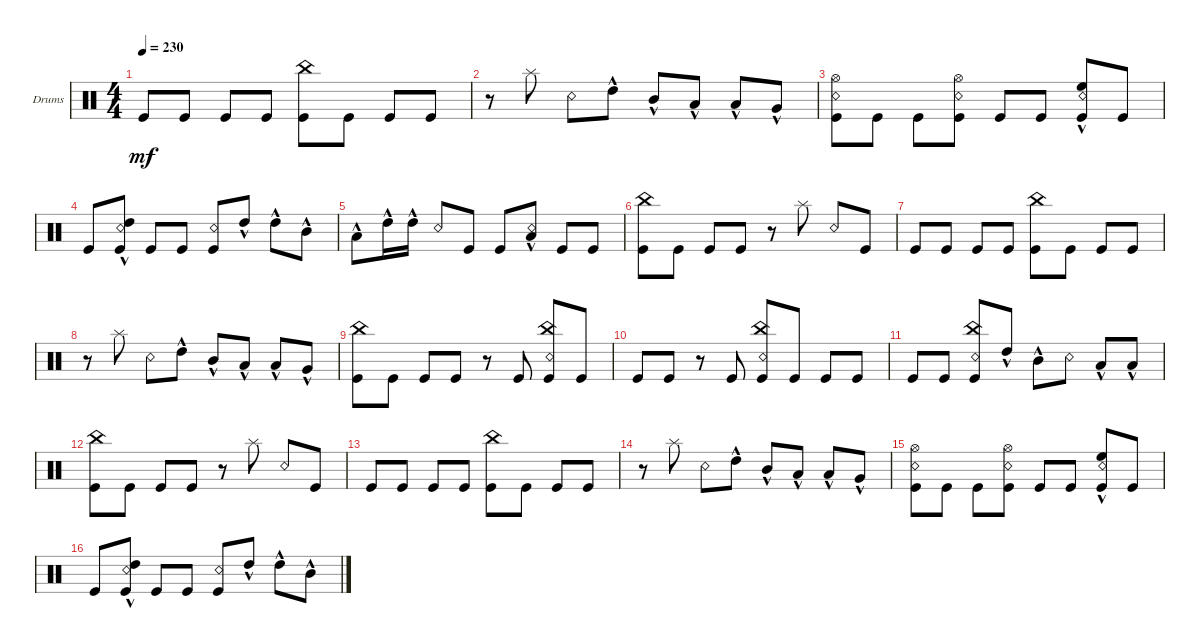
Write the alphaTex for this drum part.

\bracketExtendMode groupsimilarinstruments
\firstSystemTrackNameOrientation horizontal
\otherSystemsTrackNameOrientation horizontal
\track ("Drumkit" "Drums") {solo instrument percussion}
\staff {score}
\articulation defaults
\ts (4 4)
\tempo 230
\clef neutral
\ks c "Kick (hit)".8{dy mf} "Kick (hit)".8 "Kick (hit)".8 "Kick (hit)".8
("China (hit)" "Kick (hit)").8 "Kick (hit)".8 "Kick (hit)".8 "Kick (hit)".8 |
r.8 "Splash (hit)".8 "Snare (rim shot)".8 "High Tom (hit)"{hac}.8 "Mid Tom (hit)"{hac}.8 "Low Tom (hit)"{hac}.8 "Low Tom (hit)"{hac}.8 "Very Low Tom (hit)"{hac}.8 |
("Kick (hit)" "Hi-Hat (open)" "Snare (rim shot)").8 "Kick (hit)".8 "Kick (hit)".8 ("Kick (hit)" "Snare (rim shot)" "Hi-Hat (open)").8 "Kick (hit)".8 "Kick (hit)".8 ("Kick (hit)" "Snare (rim shot)" "High Floor Tom (hit)"{hac}).8 "Kick (hit)".8 |
"Kick (hit)".8 ("Kick (hit)" "Snare (rim shot)" "High Tom (hit)"{hac}).8 "Kick (hit)".8 "Kick (hit)".8 ("Kick (hit)" "Snare (rim shot)").8 "High Tom (hit)"{hac}.8 "High Tom (hit)"{hac}.8 "Mid Tom (hit)"{hac}.8 |
"Low Tom (hit)"{hac}.8 "High Tom (hit)"{hac}.16 "High Tom (hit)"{hac}.16 "Snare (rim shot)".8 "Kick (hit)".8 "Kick (hit)".8 ("Low Tom (hit)"{hac} "Snare (rim shot)").8 "Kick (hit)".8 "Kick (hit)".8 |
("Kick (hit)" "China (hit)").8 "Kick (hit)".8 "Kick (hit)".8 "Kick (hit)".8 r.8 "Splash (hit)".8 "Snare (rim shot)".8 "Kick (hit)".8 |
"Kick (hit)".8 "Kick (hit)".8 "Kick (hit)".8 "Kick (hit)".8 ("China (hit)" "Kick (hit)").8 "Kick (hit)".8 "Kick (hit)".8 "Kick (hit)".8 |
r.8 "Splash (hit)".8 "Snare (rim shot)".8 "High Tom (hit)"{hac}.8 "Mid Tom (hit)"{hac}.8 "Low Tom (hit)"{hac}.8 "Low Tom (hit)"{hac}.8 "Very Low Tom (hit)"{hac}.8 |
("Kick (hit)" "China (hit)").8 "Kick (hit)".8 "Kick (hit)".8 "Kick (hit)".8 r.8 "Kick (hit)".8 ("Kick (hit)" "Snare (rim shot)" "China (hit)").8 "Kick (hit)".8 |
"Kick (hit)".8 "Kick (hit)".8 r.8 "Kick (hit)".8 ("Kick (hit)" "China (hit)" "Snare (rim shot)").8 "Kick (hit)".8 "Kick (hit)".8 "Kick (hit)".8 |
"Kick (hit)".8 "Kick (hit)".8 ("Kick (hit)" "Snare (rim shot)" "China (hit)").8 "High Tom (hit)"{hac}.8 "Mid Tom (hit)"{hac}.8 "Snare (rim shot)".8 "Low Tom (hit)"{hac}.8 "Low Tom (hit)"{hac}.8 |
("Kick (hit)" "China (hit)").8 "Kick (hit)".8 "Kick (hit)".8 "Kick (hit)".8 r.8 "Splash (hit)".8 "Snare (rim shot)".8 "Kick (hit)".8 |
"Kick (hit)".8 "Kick (hit)".8 "Kick (hit)".8 "Kick (hit)".8 ("China (hit)" "Kick (hit)").8 "Kick (hit)".8 "Kick (hit)".8 "Kick (hit)".8 |
r.8 "Splash (hit)".8 "Snare (rim shot)".8 "High Tom (hit)"{hac}.8 "Mid Tom (hit)"{hac}.8 "Low Tom (hit)"{hac}.8 "Low Tom (hit)"{hac}.8 "Very Low Tom (hit)"{hac}.8 |
("Kick (hit)" "Hi-Hat (open)" "Snare (rim shot)").8 "Kick (hit)".8 "Kick (hit)".8 ("Kick (hit)" "Snare (rim shot)" "Hi-Hat (open)").8 "Kick (hit)".8 "Kick (hit)".8 ("Kick (hit)" "Snare (rim shot)" "High Floor Tom (hit)"{hac}).8 "Kick (hit)".8 |
"Kick (hit)".8 ("Kick (hit)" "Snare (rim shot)" "High Tom (hit)"{hac}).8 "Kick (hit)".8 "Kick (hit)".8 ("Kick (hit)" "Snare (rim shot)").8 "High Tom (hit)"{hac}.8 "High Tom (hit)"{hac}.8 "Mid Tom (hit)"{hac}.8
